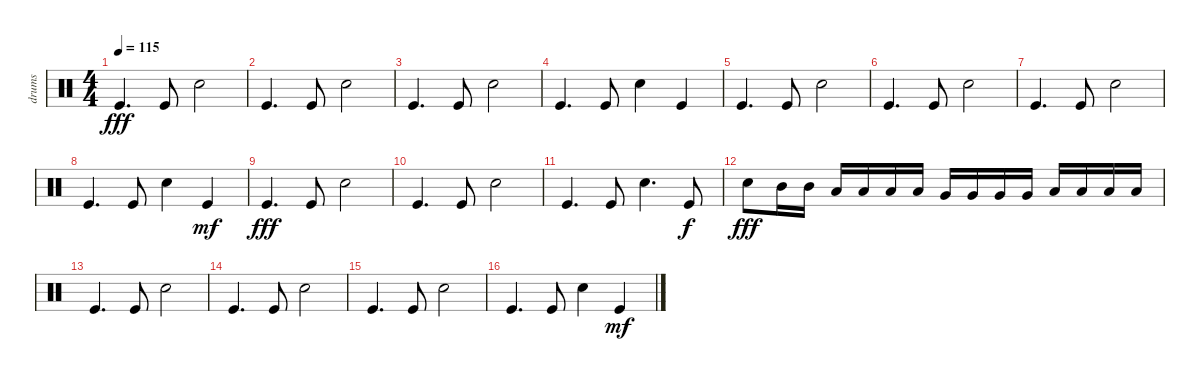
\track ("drums" "drums") {instrument percussion}
\staff {score}
\articulation defaults
\ts (4 4)
\tempo 115
\clef neutral
\ks c "Kick (hit)".4{d dy fff} "Kick (hit)".8 "Electric Snare (hit)".2
|
"Kick (hit)".4{d} "Kick (hit)".8 "Electric Snare (hit)".2 |
"Kick (hit)".4{d} "Kick (hit)".8 "Electric Snare (hit)".2 |
"Kick (hit)".4{d} "Kick (hit)".8 "Electric Snare (hit)".4 "Kick (hit)".4 |
"Kick (hit)".4{d} "Kick (hit)".8 "Electric Snare (hit)".2 |
"Kick (hit)".4{d} "Kick (hit)".8 "Electric Snare (hit)".2 |
"Kick (hit)".4{d} "Kick (hit)".8 "Electric Snare (hit)".2 |
"Kick (hit)".4{d} "Kick (hit)".8 "Electric Snare (hit)".4 "Kick (hit)".4{dy mf} |
"Kick (hit)".4{d dy fff} "Kick (hit)".8 "Electric Snare (hit)".2 |
"Kick (hit)".4{d} "Kick (hit)".8 "Electric Snare (hit)".2 |
"Kick (hit)".4{d} "Kick (hit)".8 "Electric Snare (hit)".4{d} "Kick (hit)".8{dy f} |
"Electric Snare (hit)".8{dy fff} "Mid Tom (hit)".16 "Mid Tom (hit)".16 "Low Tom (hit)".16 "Low Tom (hit)".16 "Low Tom (hit)".16 "Low Tom (hit)".16 "Very Low Tom (hit)".16 "Very Low Tom (hit)".16 "Very Low Tom (hit)".16 "Very Low Tom (hit)".16 "Low Floor Tom (hit)".16 "Low Floor Tom (hit)".16 "Low Floor Tom (hit)".16 "Low Floor Tom (hit)".16 |
"Kick (hit)".4{d} "Kick (hit)".8 "Electric Snare (hit)".2 |
"Kick (hit)".4{d} "Kick (hit)".8 "Electric Snare (hit)".2 |
"Kick (hit)".4{d} "Kick (hit)".8 "Electric Snare (hit)".2 |
"Kick (hit)".4{d} "Kick (hit)".8 "Electric Snare (hit)".4 "Kick (hit)".4{dy mf}
